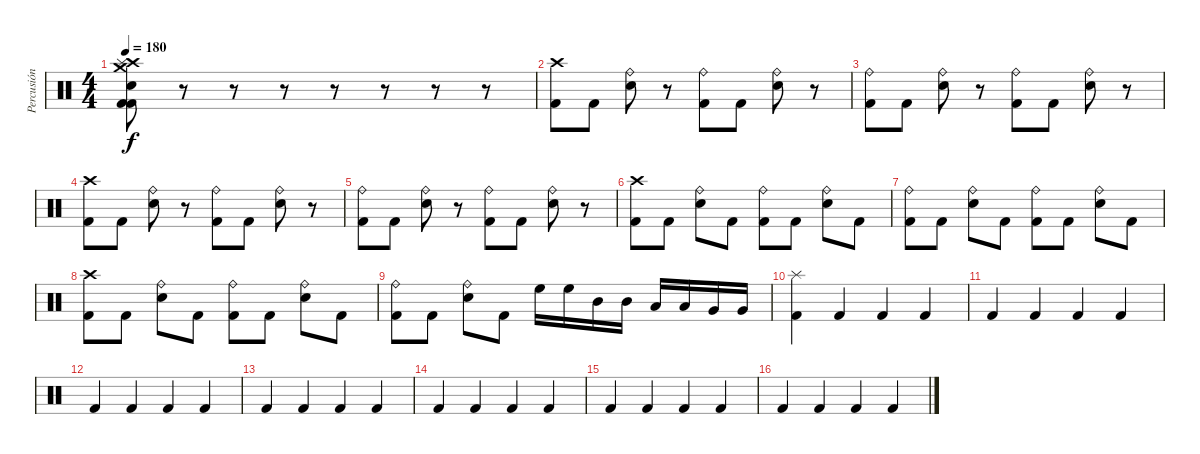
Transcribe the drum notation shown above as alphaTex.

\track ("Percusión" "Percusión") {instrument percussion}
\staff {score}
\articulation defaults
\ts (4 4)
\tempo 180
\clef neutral
\ks c
("Crash medium (hit)" "Crash high (hit)" "Splash (hit)" "Kick (hit) 2" "Kick (hit) 2" "Electric Snare (hit)").8{dy f} r.8 r.8 r.8 r.8 r.8 r.8 r.8 |
("Crash high (hit)" "Kick (hit) 2").8 "Kick (hit) 2".8 ("Ride (bell)" "Electric Snare (hit)").8 r.8 ("Ride (bell)" "Kick (hit) 2").8 "Kick (hit) 2".8 ("Ride (bell)" "Electric Snare (hit)").8 r.8 |
("Ride (bell)" "Kick (hit) 2").8 "Kick (hit) 2".8 ("Ride (bell)" "Electric Snare (hit)").8 r.8 ("Ride (bell)" "Kick (hit) 2").8 "Kick (hit) 2".8 ("Ride (bell)" "Electric Snare (hit)").8 r.8 |
("Crash high (hit)" "Kick (hit) 2").8 "Kick (hit) 2".8 ("Ride (bell)" "Electric Snare (hit)").8 r.8 ("Ride (bell)" "Kick (hit) 2").8 "Kick (hit) 2".8 ("Ride (bell)" "Electric Snare (hit)").8 r.8 |
("Ride (bell)" "Kick (hit) 2").8 "Kick (hit) 2".8 ("Ride (bell)" "Electric Snare (hit)").8 r.8 ("Ride (bell)" "Kick (hit) 2").8 "Kick (hit) 2".8 ("Ride (bell)" "Electric Snare (hit)").8 r.8 |
("Crash high (hit)" "Kick (hit) 2").8 "Kick (hit) 2".8 ("Ride (bell)" "Electric Snare (hit)").8 "Kick (hit) 2".8 ("Ride (bell)" "Kick (hit) 2").8 "Kick (hit) 2".8 ("Ride (bell)" "Electric Snare (hit)").8 "Kick (hit) 2".8 |
("Ride (bell)" "Kick (hit) 2").8 "Kick (hit) 2".8 ("Ride (bell)" "Electric Snare (hit)").8 "Kick (hit) 2".8 ("Ride (bell)" "Kick (hit) 2").8 "Kick (hit) 2".8 ("Ride (bell)" "Electric Snare (hit)").8 "Kick (hit) 2".8 |
("Crash high (hit)" "Kick (hit) 2").8 "Kick (hit) 2".8 ("Ride (bell)" "Electric Snare (hit)").8 "Kick (hit) 2".8 ("Ride (bell)" "Kick (hit) 2").8 "Kick (hit) 2".8 ("Ride (bell)" "Electric Snare (hit)").8 "Kick (hit) 2".8 |
("Ride (bell)" "Kick (hit) 2").8 "Kick (hit) 2".8 ("Ride (bell)" "Electric Snare (hit)").8 "Kick (hit) 2".8 "High Floor Tom (hit)".16 "High Floor Tom (hit)".16 "Mid Tom (hit)".16 "Mid Tom (hit)".16 "Low Tom (hit)".16 "Low Tom (hit)".16 "Very Low Tom (hit)".16 "Very Low Tom (hit)".16 |
("Splash (hit)" "Kick (hit) 2").4 "Kick (hit) 2".4 "Kick (hit) 2".4 "Kick (hit) 2".4 |
"Kick (hit) 2".4 "Kick (hit) 2".4 "Kick (hit) 2".4 "Kick (hit) 2".4 |
"Kick (hit) 2".4 "Kick (hit) 2".4 "Kick (hit) 2".4 "Kick (hit) 2".4 |
"Kick (hit) 2".4 "Kick (hit) 2".4 "Kick (hit) 2".4 "Kick (hit) 2".4 |
"Kick (hit) 2".4 "Kick (hit) 2".4 "Kick (hit) 2".4 "Kick (hit) 2".4 |
"Kick (hit) 2".4 "Kick (hit) 2".4 "Kick (hit) 2".4 "Kick (hit) 2".4 |
"Kick (hit) 2".4 "Kick (hit) 2".4 "Kick (hit) 2".4 "Kick (hit) 2".4
